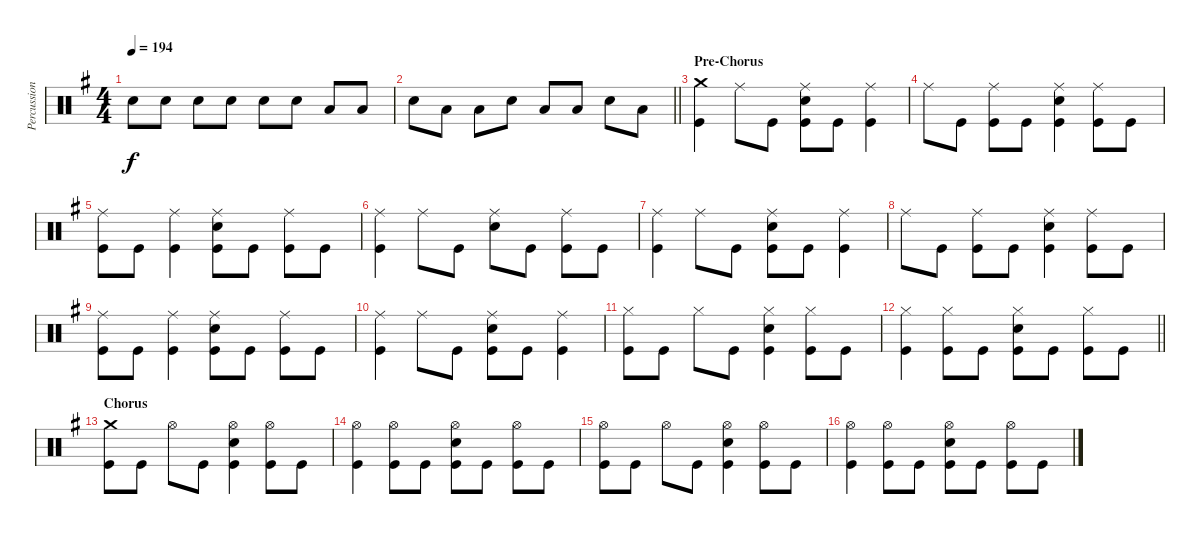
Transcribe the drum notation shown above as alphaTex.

\track ("Percussion" "Percussion") {instrument percussion}
\staff {score}
\articulation defaults
\ts (4 4)
\tempo 194
\clef neutral
\ks g "Electric Snare (hit)".8{dy f} "Electric Snare (hit)".8 "Electric Snare (hit)".8 "Electric Snare (hit)".8 "Electric Snare (hit)".8 "Electric Snare (hit)".8 "Low Tom (hit)".8 "Low Tom (hit)".8
|
\barLineRight lightlight "Electric Snare (hit)".8 "Low Tom (hit)".8 "Low Tom (hit)".8 "Electric Snare (hit)".8 "Low Tom (hit)".8 "Low Tom (hit)".8 "Electric Snare (hit)".8 "Low Tom (hit)".8
|
\section ("" "Pre-Chorus")
("Crash medium (hit)" "Kick (hit)").4 "Ride (middle)".8 "Kick (hit)".8 ("Ride (middle)" "Electric Snare (hit)" "Kick (hit)").8 "Kick (hit)".8 ("Ride (middle)" "Kick (hit)").4 |
"Ride (middle)".8 "Kick (hit)".8 ("Ride (middle)" "Kick (hit)").8 "Kick (hit)".8 ("Ride (middle)" "Electric Snare (hit)" "Kick (hit)").4 ("Ride (middle)" "Kick (hit)").8 "Kick (hit)".8 |
("Ride (middle)" "Kick (hit)").8 "Kick (hit)".8 ("Ride (middle)" "Kick (hit)").4 ("Ride (middle)" "Electric Snare (hit)" "Kick (hit)").8 "Kick (hit)".8 ("Ride (middle)" "Kick (hit)").8 "Kick (hit)".8 |
("Ride (middle)" "Kick (hit)").4 "Ride (middle)".8 "Kick (hit)".8 ("Ride (middle)" "Electric Snare (hit)").8 "Kick (hit)".8 ("Ride (middle)" "Kick (hit)").8 "Kick (hit)".8 |
("Ride (middle)" "Kick (hit)").4 "Ride (middle)".8 "Kick (hit)".8 ("Ride (middle)" "Electric Snare (hit)" "Kick (hit)").8 "Kick (hit)".8 ("Ride (middle)" "Kick (hit)").4 |
"Ride (middle)".8 "Kick (hit)".8 ("Ride (middle)" "Kick (hit)").8 "Kick (hit)".8 ("Ride (middle)" "Electric Snare (hit)" "Kick (hit)").4 ("Ride (middle)" "Kick (hit)").8 "Kick (hit)".8 |
("Ride (middle)" "Kick (hit)").8 "Kick (hit)".8 ("Ride (middle)" "Kick (hit)").4 ("Ride (middle)" "Electric Snare (hit)" "Kick (hit)").8 "Kick (hit)".8 ("Ride (middle)" "Kick (hit)").8 "Kick (hit)".8 |
("Ride (middle)" "Kick (hit)").4 "Ride (middle)".8 "Kick (hit)".8 ("Ride (middle)" "Electric Snare (hit)" "Kick (hit)").8 "Kick (hit)".8 ("Ride (middle)" "Kick (hit)").4 |
("Hi-Hat (closed)" "Kick (hit)").8 "Kick (hit)".8 "Hi-Hat (closed)".8 "Kick (hit)".8 ("Hi-Hat (closed)" "Electric Snare (hit)" "Kick (hit)").4 ("Hi-Hat (closed)" "Kick (hit)").8 "Kick (hit)".8 |
\barLineRight lightlight
("Hi-Hat (closed)" "Kick (hit)").4 ("Hi-Hat (closed)" "Kick (hit)").8 "Kick (hit)".8 ("Hi-Hat (closed)" "Electric Snare (hit)" "Kick (hit)").8 "Kick (hit)".8 ("Hi-Hat (closed)" "Kick (hit)").8 "Kick (hit)".8 |
\section ("" "Chorus")
("Crash medium (hit)" "Kick (hit)").8 "Kick (hit)".8 "Hi-Hat (open)".8 "Kick (hit)".8 ("Hi-Hat (open)" "Electric Snare (hit)" "Kick (hit)").4 ("Hi-Hat (open)" "Kick (hit)").8 "Kick (hit)".8 |
("Hi-Hat (open)" "Kick (hit)").4 ("Hi-Hat (open)" "Kick (hit)").8 "Kick (hit)".8 ("Hi-Hat (open)" "Electric Snare (hit)" "Kick (hit)").8 "Kick (hit)".8 ("Hi-Hat (open)" "Kick (hit)").8 "Kick (hit)".8 |
("Hi-Hat (open)" "Kick (hit)").8 "Kick (hit)".8 "Hi-Hat (open)".8 "Kick (hit)".8 ("Hi-Hat (open)" "Electric Snare (hit)" "Kick (hit)").4 ("Hi-Hat (open)" "Kick (hit)").8 "Kick (hit)".8 |
("Hi-Hat (open)" "Kick (hit)").4 ("Hi-Hat (open)" "Kick (hit)").8 "Kick (hit)".8 ("Hi-Hat (open)" "Electric Snare (hit)" "Kick (hit)").8 "Kick (hit)".8 ("Hi-Hat (open)" "Kick (hit)").8 "Kick (hit)".8
